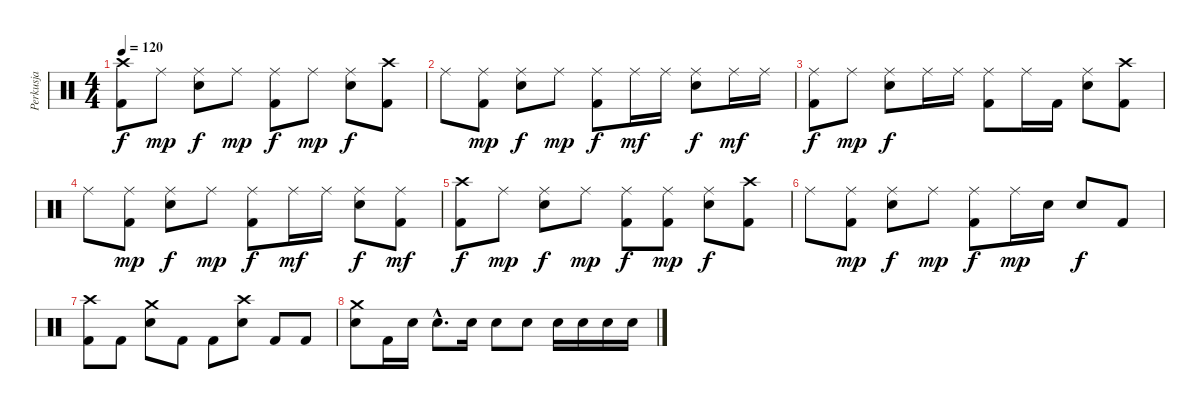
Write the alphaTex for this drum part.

\track ("Perkusja" "Perkusja") {instrument percussion}
\staff {score}
\articulation defaults
\ts (4 4)
\tempo 120
\clef neutral
\ks c
("Crash high (hit)" "Kick (hit) 2").8{dy f} "Ride (middle)".8{dy mp} ("Ride (middle)" "Snare (hit) 2").8{dy f} "Ride (middle)".8{dy mp} ("Ride (middle)" "Kick (hit) 2").8{dy f} "Ride (middle)".8{dy mp} ("Ride (middle)" "Snare (hit) 2").8{dy f} ("Crash high (hit)" "Kick (hit) 2").8 |
"Ride (middle)".8 ("Ride (middle)" "Kick (hit) 2").8{dy mp} ("Ride (middle)" "Snare (hit) 2").8{dy f} "Ride (middle)".8{dy mp} ("Ride (middle)" "Kick (hit) 2").8{dy f} "Ride (middle)".16{dy mf} "Ride (middle)".16 ("Ride (middle)" "Snare (hit) 2").8{dy f} "Ride (middle)".16{dy mf} "Ride (middle)".16 |
("Ride (middle)" "Kick (hit) 2").8{dy f} "Ride (middle)".8{dy mp} ("Ride (middle)" "Snare (hit) 2").8{dy f} "Ride (middle)".16 "Ride (middle)".16 ("Ride (middle)" "Kick (hit) 2").8 "Ride (middle)".16 "Kick (hit) 2".16 ("Ride (middle)" "Snare (hit) 2").8 ("Crash high (hit)" "Kick (hit) 2").8 |
"Ride (middle)".8 ("Ride (middle)" "Kick (hit) 2").8{dy mp} ("Ride (middle)" "Snare (hit) 2").8{dy f} "Ride (middle)".8{dy mp} ("Ride (middle)" "Kick (hit) 2").8{dy f} "Ride (middle)".16{dy mf} "Ride (middle)".16 ("Ride (middle)" "Snare (hit) 2").8{dy f} ("Ride (middle)" "Kick (hit) 2").8{dy mf} |
("Crash high (hit)" "Kick (hit) 2").8{dy f} "Ride (middle)".8{dy mp} ("Ride (middle)" "Snare (hit) 2").8{dy f} "Ride (middle)".8{dy mp} ("Ride (middle)" "Kick (hit) 2").8{dy f} ("Ride (middle)" "Kick (hit) 2").8{dy mp} ("Ride (middle)" "Snare (hit) 2").8{dy f} ("Crash high (hit)" "Kick (hit) 2").8 |
"Ride (middle)".8 ("Ride (middle)" "Kick (hit) 2").8{dy mp} ("Ride (middle)" "Snare (hit) 2").8{dy f} "Ride (middle)".8{dy mp} ("Ride (middle)" "Kick (hit) 2").8{dy f} "Ride (middle)".16{dy mp} "Snare (hit) 2".16 "Snare (hit) 2".8{dy f} "Kick (hit) 2".8 |
("Crash high (hit)" "Kick (hit) 2").8 "Kick (hit) 2".8 ("Crash medium (hit)" "Snare (hit) 2").8 "Kick (hit) 2".8 "Kick (hit) 2".8 ("Crash high (hit)" "Snare (hit) 2").8 "Kick (hit) 2".8 "Kick (hit) 2".8 |
("Crash medium (hit)" "Snare (hit) 2").8 "Kick (hit) 2".16 "Snare (hit) 2".16 "Snare (hit) 2"{hac}.8{d} "Snare (hit) 2".16 "Snare (hit) 2".8 "Snare (hit) 2".8 "Snare (hit) 2".16 "Snare (hit) 2".16 "Snare (hit) 2".16 "Snare (hit) 2".16
